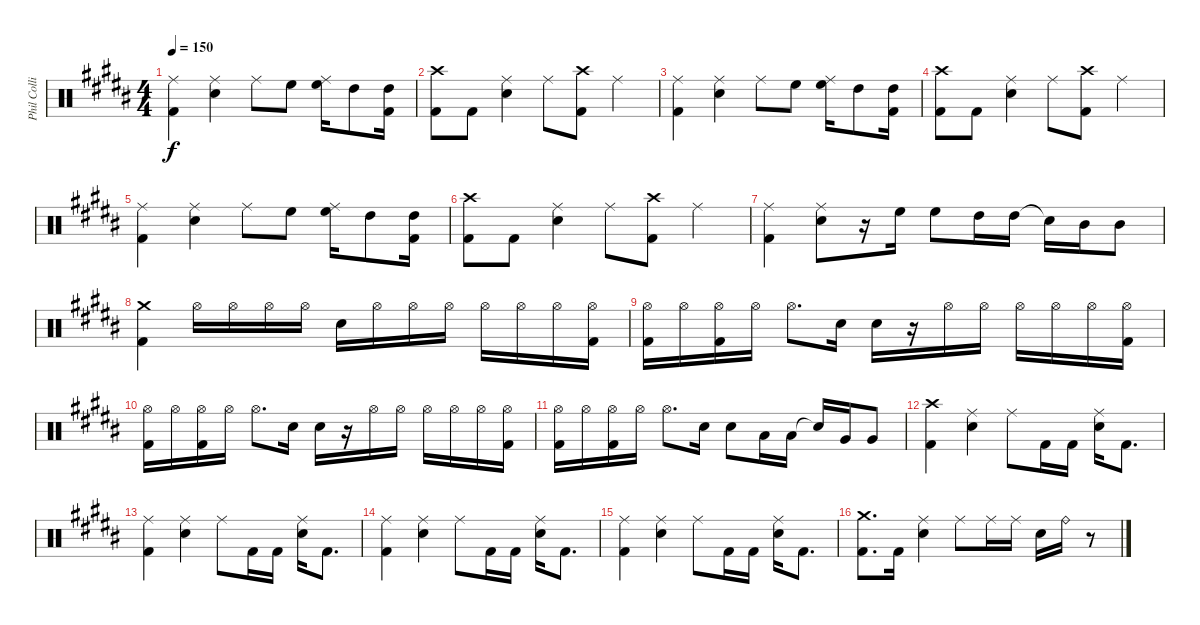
\track ("Phil Collins [Drums]" "Phil Colli") {instrument percussion}
\staff {score}
\articulation defaults
\ts (4 4)
\tempo 150
\clef neutral
\ks b
("Ride (middle)" "Kick (hit) 2").4{dy f} ("Ride (middle)" "Electric Snare (hit)").4 "Ride (middle)".8 "High Floor Tom (hit)".8 ("Ride (middle)" "High Floor Tom (hit)").16 "High Tom (hit)".8 ("High Tom (hit)" "Kick (hit) 2").16 |
("Crash high (hit)" "Kick (hit) 2").8 "Kick (hit) 2".8 ("Ride (middle)" "Electric Snare (hit)").4 "Ride (middle)".8 ("Crash high (hit)" "Kick (hit) 2").8 "Ride (middle)".4 |
("Ride (middle)" "Kick (hit) 2").4 ("Ride (middle)" "Electric Snare (hit)").4 "Ride (middle)".8 "High Floor Tom (hit)".8 ("Ride (middle)" "High Floor Tom (hit)").16 "High Tom (hit)".8 ("High Tom (hit)" "Kick (hit) 2").16 |
("Crash high (hit)" "Kick (hit) 2").8 "Kick (hit) 2".8 ("Ride (middle)" "Electric Snare (hit)").4 "Ride (middle)".8 ("Crash high (hit)" "Kick (hit) 2").8 "Ride (middle)".4 |
("Ride (middle)" "Kick (hit) 2").4 ("Ride (middle)" "Electric Snare (hit)").4 "Ride (middle)".8 "High Floor Tom (hit)".8 ("Ride (middle)" "High Floor Tom (hit)").16 "High Tom (hit)".8 ("High Tom (hit)" "Kick (hit) 2").16 |
("Crash high (hit)" "Kick (hit) 2").8 "Kick (hit) 2".8 ("Ride (middle)" "Electric Snare (hit)").4 "Ride (middle)".8 ("Crash high (hit)" "Kick (hit) 2").8 "Ride (middle)".4 |
("Ride (middle)" "Kick (hit) 2").4 ("Ride (middle)" "Electric Snare (hit)").8 r.16 "High Floor Tom (hit)".16 "High Floor Tom (hit)".8 "High Tom (hit)".16 "High Tom (hit)".16 "Snare (hit)"{t}.16 "Mid Tom (hit)".16 "Mid Tom (hit)".8 |
("Crash medium (hit)" "Kick (hit) 2").4 "Hi-Hat (open)".16 "Hi-Hat (open)".16 "Hi-Hat (open)".16 "Hi-Hat (open)".16 "Electric Snare (hit)".16 "Hi-Hat (open)".16 "Hi-Hat (open)".16 "Hi-Hat (open)".16 "Hi-Hat (open)".16 "Hi-Hat (open)".16 "Hi-Hat (open)".16 ("Hi-Hat (open)" "Kick (hit) 2").16 |
("Hi-Hat (open)" "Kick (hit) 2").16 "Hi-Hat (open)".16 ("Hi-Hat (open)" "Kick (hit) 2").16 "Hi-Hat (open)".16 "Hi-Hat (open)".8{d} "Electric Snare (hit)".16 "Electric Snare (hit)".16 r.16 "Hi-Hat (open)".16 "Hi-Hat (open)".16 "Hi-Hat (open)".16 "Hi-Hat (open)".16 "Hi-Hat (open)".16 ("Hi-Hat (open)" "Kick (hit) 2").16 |
("Hi-Hat (open)" "Kick (hit) 2").16 "Hi-Hat (open)".16 ("Hi-Hat (open)" "Kick (hit) 2").16 "Hi-Hat (open)".16 "Hi-Hat (open)".8{d} "Electric Snare (hit)".16 "Electric Snare (hit)".16 r.16 "Hi-Hat (open)".16 "Hi-Hat (open)".16 "Hi-Hat (open)".16 "Hi-Hat (open)".16 "Hi-Hat (open)".16 ("Hi-Hat (open)" "Kick (hit) 2").16 |
("Hi-Hat (open)" "Kick (hit) 2").16 "Hi-Hat (open)".16 ("Hi-Hat (open)" "Kick (hit) 2").16 "Hi-Hat (open)".16 "Hi-Hat (open)".8{d} "Electric Snare (hit)".16 "Electric Snare (hit)".8 "Low Tom (hit)".16 "Low Tom (hit)".16 "Snare (hit)"{t}.16 "Very Low Tom (hit)".16 "Very Low Tom (hit)".8 |
("Crash high (hit)" "Kick (hit) 2").4 ("Ride (middle)" "Electric Snare (hit)").4 "Ride (middle)".8 "Kick (hit) 2".16 "Kick (hit) 2".16 ("Ride (middle)" "Electric Snare (hit)").16 "Kick (hit) 2".8{d} |
("Ride (middle)" "Kick (hit) 2").4 ("Ride (middle)" "Electric Snare (hit)").4 "Ride (middle)".8 "Kick (hit) 2".16 "Kick (hit) 2".16 ("Ride (middle)" "Electric Snare (hit)").16 "Kick (hit) 2".8{d} |
("Ride (middle)" "Kick (hit) 2").4 ("Ride (middle)" "Electric Snare (hit)").4 "Ride (middle)".8 "Kick (hit) 2".16 "Kick (hit) 2".16 ("Ride (middle)" "Electric Snare (hit)").16 "Kick (hit) 2".8{d} |
("Ride (middle)" "Kick (hit) 2").4 ("Ride (middle)" "Electric Snare (hit)").4 "Ride (middle)".8 "Kick (hit) 2".16 "Kick (hit) 2".16 ("Ride (middle)" "Electric Snare (hit)").16 "Kick (hit) 2".8{d} |
("Crash medium (hit)" "Kick (hit) 2").8{d} "Kick (hit) 2".16 ("Ride (middle)" "Electric Snare (hit)").4 "Ride (middle)".8 "Ride (middle)".16 "Ride (middle)".16 "Electric Snare (hit)".16 "Ride (bell)".16 r.8
